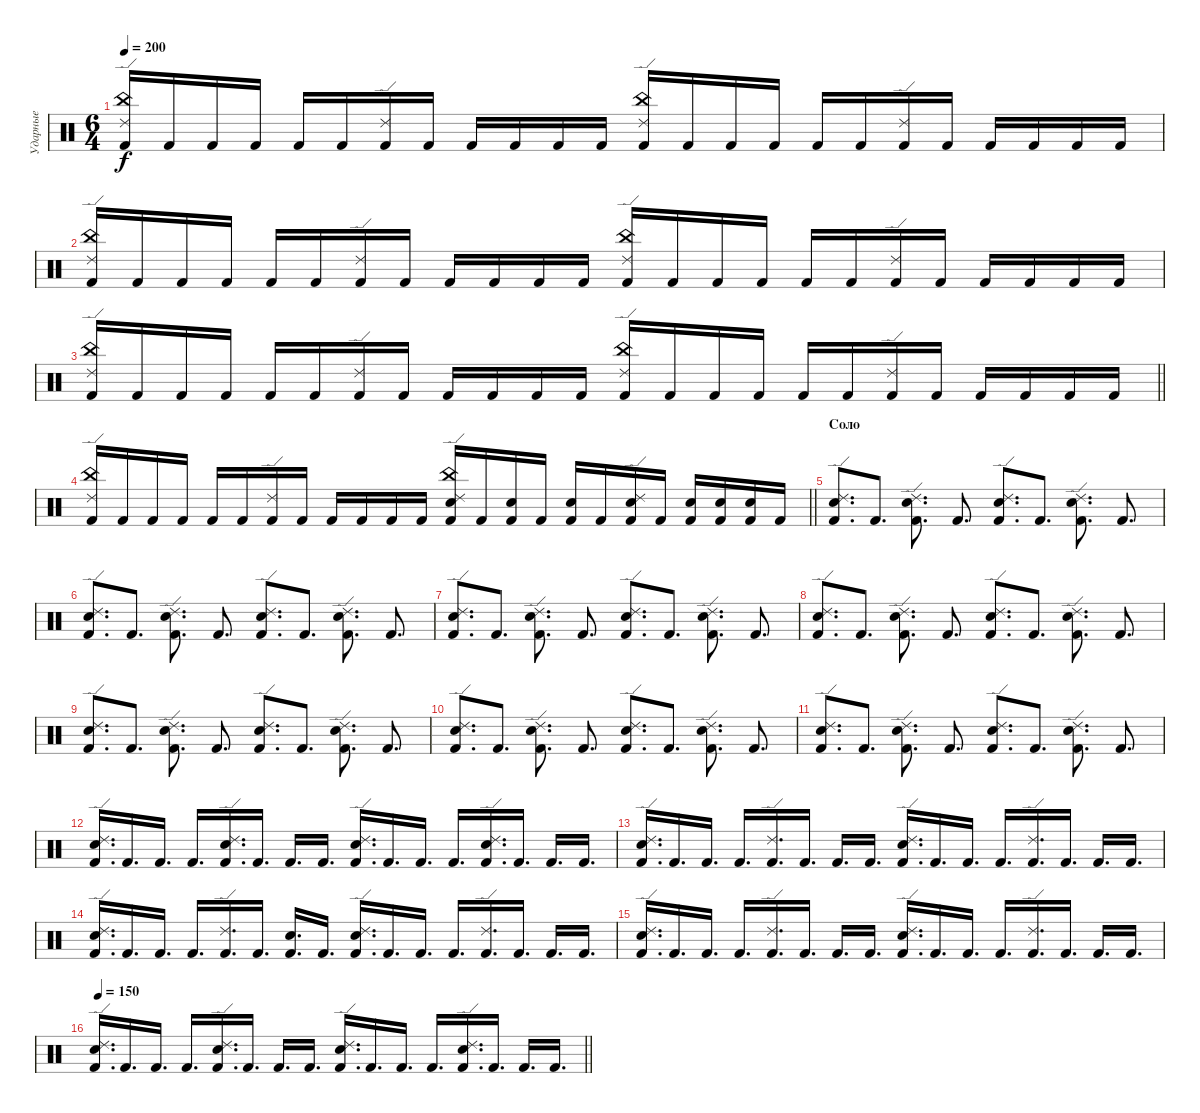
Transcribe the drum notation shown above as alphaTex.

\track ("Ударные" "Ударные") {instrument percussion}
\staff {score}
\articulation defaults
\ts (6 4)
\tempo 200
\clef neutral
\ks c
("Ride (edge) 2" "China (hit)" "Kick (hit) 2").16{dy f} "Kick (hit) 2".16 "Kick (hit) 2".16 "Kick (hit) 2".16 "Kick (hit) 2".16 "Kick (hit) 2".16 ("Ride (edge) 2" "Kick (hit) 2").16 "Kick (hit) 2".16 "Kick (hit) 2".16 "Kick (hit) 2".16 "Kick (hit) 2".16 "Kick (hit) 2".16 ("Ride (edge) 2" "China (hit)" "Kick (hit) 2").16 "Kick (hit) 2".16 "Kick (hit) 2".16 "Kick (hit) 2".16 "Kick (hit) 2".16 "Kick (hit) 2".16 ("Ride (edge) 2" "Kick (hit) 2").16 "Kick (hit) 2".16 "Kick (hit) 2".16 "Kick (hit) 2".16 "Kick (hit) 2".16 "Kick (hit) 2".16 |
("Ride (edge) 2" "China (hit)" "Kick (hit) 2").16 "Kick (hit) 2".16 "Kick (hit) 2".16 "Kick (hit) 2".16 "Kick (hit) 2".16 "Kick (hit) 2".16 ("Ride (edge) 2" "Kick (hit) 2").16 "Kick (hit) 2".16 "Kick (hit) 2".16 "Kick (hit) 2".16 "Kick (hit) 2".16 "Kick (hit) 2".16 ("Ride (edge) 2" "China (hit)" "Kick (hit) 2").16 "Kick (hit) 2".16 "Kick (hit) 2".16 "Kick (hit) 2".16 "Kick (hit) 2".16 "Kick (hit) 2".16 ("Ride (edge) 2" "Kick (hit) 2").16 "Kick (hit) 2".16 "Kick (hit) 2".16 "Kick (hit) 2".16 "Kick (hit) 2".16 "Kick (hit) 2".16 |
\barLineRight lightlight
("Ride (edge) 2" "China (hit)" "Kick (hit) 2").16 "Kick (hit) 2".16 "Kick (hit) 2".16 "Kick (hit) 2".16 "Kick (hit) 2".16 "Kick (hit) 2".16 ("Ride (edge) 2" "Kick (hit) 2").16 "Kick (hit) 2".16 "Kick (hit) 2".16 "Kick (hit) 2".16 "Kick (hit) 2".16 "Kick (hit) 2".16 ("Ride (edge) 2" "China (hit)" "Kick (hit) 2").16 "Kick (hit) 2".16 "Kick (hit) 2".16 "Kick (hit) 2".16 "Kick (hit) 2".16 "Kick (hit) 2".16 ("Ride (edge) 2" "Kick (hit) 2").16 "Kick (hit) 2".16 "Kick (hit) 2".16 "Kick (hit) 2".16 "Kick (hit) 2".16 "Kick (hit) 2".16 |
\barLineRight lightlight
("Ride (edge) 2" "China (hit)" "Kick (hit) 2").16 "Kick (hit) 2".16 "Kick (hit) 2".16 "Kick (hit) 2".16 "Kick (hit) 2".16 "Kick (hit) 2".16 ("Ride (edge) 2" "Kick (hit) 2").16 "Kick (hit) 2".16 "Kick (hit) 2".16 "Kick (hit) 2".16 "Kick (hit) 2".16 "Kick (hit) 2".16 ("Ride (edge) 2" "China (hit)" "Electric Snare (hit)" "Kick (hit) 2").16 "Kick (hit) 2".16 ("Electric Snare (hit)" "Kick (hit) 2").16 "Kick (hit) 2".16 ("Electric Snare (hit)" "Kick (hit) 2").16 "Kick (hit) 2".16 ("Ride (edge) 2" "Electric Snare (hit)" "Kick (hit) 2").16 "Kick (hit) 2".16 ("Electric Snare (hit)" "Kick (hit) 2").16 ("Electric Snare (hit)" "Kick (hit) 2").16 ("Electric Snare (hit)" "Kick (hit) 2").16 "Kick (hit) 2".16 |
\section ("" "Соло")
("Ride (edge) 2" "Electric Snare (hit)" "Kick (hit) 2").8{d} "Kick (hit) 2".8{d} ("Ride (edge) 2" "Electric Snare (hit)" "Kick (hit) 2").8{d} "Kick (hit) 2".8{d} ("Ride (edge) 2" "Electric Snare (hit)" "Kick (hit) 2").8{d} "Kick (hit) 2".8{d} ("Ride (edge) 2" "Electric Snare (hit)" "Kick (hit) 2").8{d} "Kick (hit) 2".8{d} |
("Ride (edge) 2" "Electric Snare (hit)" "Kick (hit) 2").8{d} "Kick (hit) 2".8{d} ("Ride (edge) 2" "Electric Snare (hit)" "Kick (hit) 2").8{d} "Kick (hit) 2".8{d} ("Ride (edge) 2" "Electric Snare (hit)" "Kick (hit) 2").8{d} "Kick (hit) 2".8{d} ("Ride (edge) 2" "Electric Snare (hit)" "Kick (hit) 2").8{d} "Kick (hit) 2".8{d} |
("Ride (edge) 2" "Electric Snare (hit)" "Kick (hit) 2").8{d} "Kick (hit) 2".8{d} ("Ride (edge) 2" "Electric Snare (hit)" "Kick (hit) 2").8{d} "Kick (hit) 2".8{d} ("Ride (edge) 2" "Electric Snare (hit)" "Kick (hit) 2").8{d} "Kick (hit) 2".8{d} ("Ride (edge) 2" "Electric Snare (hit)" "Kick (hit) 2").8{d} "Kick (hit) 2".8{d} |
("Ride (edge) 2" "Electric Snare (hit)" "Kick (hit) 2").8{d} "Kick (hit) 2".8{d} ("Ride (edge) 2" "Electric Snare (hit)" "Kick (hit) 2").8{d} "Kick (hit) 2".8{d} ("Ride (edge) 2" "Electric Snare (hit)" "Kick (hit) 2").8{d} "Kick (hit) 2".8{d} ("Ride (edge) 2" "Electric Snare (hit)" "Kick (hit) 2").8{d} "Kick (hit) 2".8{d} |
("Ride (edge) 2" "Electric Snare (hit)" "Kick (hit) 2").8{d} "Kick (hit) 2".8{d} ("Ride (edge) 2" "Electric Snare (hit)" "Kick (hit) 2").8{d} "Kick (hit) 2".8{d} ("Ride (edge) 2" "Electric Snare (hit)" "Kick (hit) 2").8{d} "Kick (hit) 2".8{d} ("Ride (edge) 2" "Electric Snare (hit)" "Kick (hit) 2").8{d} "Kick (hit) 2".8{d} |
("Ride (edge) 2" "Electric Snare (hit)" "Kick (hit) 2").8{d} "Kick (hit) 2".8{d} ("Ride (edge) 2" "Electric Snare (hit)" "Kick (hit) 2").8{d} "Kick (hit) 2".8{d} ("Ride (edge) 2" "Electric Snare (hit)" "Kick (hit) 2").8{d} "Kick (hit) 2".8{d} ("Ride (edge) 2" "Electric Snare (hit)" "Kick (hit) 2").8{d} "Kick (hit) 2".8{d} |
("Ride (edge) 2" "Electric Snare (hit)" "Kick (hit) 2").8{d} "Kick (hit) 2".8{d} ("Ride (edge) 2" "Electric Snare (hit)" "Kick (hit) 2").8{d} "Kick (hit) 2".8{d} ("Ride (edge) 2" "Electric Snare (hit)" "Kick (hit) 2").8{d} "Kick (hit) 2".8{d} ("Ride (edge) 2" "Electric Snare (hit)" "Kick (hit) 2").8{d} "Kick (hit) 2".8{d} |
("Ride (edge) 2" "Electric Snare (hit)" "Kick (hit) 2").16{d} "Kick (hit) 2".16{d} "Kick (hit) 2".16{d} "Kick (hit) 2".16{d} ("Ride (edge) 2" "Electric Snare (hit)" "Kick (hit) 2").16{d} "Kick (hit) 2".16{d} "Kick (hit) 2".16{d} "Kick (hit) 2".16{d} ("Ride (edge) 2" "Electric Snare (hit)" "Kick (hit) 2").16{d} "Kick (hit) 2".16{d} "Kick (hit) 2".16{d} "Kick (hit) 2".16{d} ("Ride (edge) 2" "Electric Snare (hit)" "Kick (hit) 2").16{d} "Kick (hit) 2".16{d} "Kick (hit) 2".16{d} "Kick (hit) 2".16{d} |
("Ride (edge) 2" "Electric Snare (hit)" "Kick (hit) 2").16{d} "Kick (hit) 2".16{d} "Kick (hit) 2".16{d} "Kick (hit) 2".16{d} ("Ride (edge) 2" "Kick (hit) 2").16{d} "Kick (hit) 2".16{d} "Kick (hit) 2".16{d} "Kick (hit) 2".16{d} ("Ride (edge) 2" "Electric Snare (hit)" "Kick (hit) 2").16{d} "Kick (hit) 2".16{d} "Kick (hit) 2".16{d} "Kick (hit) 2".16{d} ("Ride (edge) 2" "Kick (hit) 2").16{d} "Kick (hit) 2".16{d} "Kick (hit) 2".16{d} "Kick (hit) 2".16{d} |
("Ride (edge) 2" "Electric Snare (hit)" "Kick (hit) 2").16{d} "Kick (hit) 2".16{d} "Kick (hit) 2".16{d} "Kick (hit) 2".16{d} ("Ride (edge) 2" "Kick (hit) 2").16{d} "Kick (hit) 2".16{d} ("Electric Snare (hit)" "Kick (hit) 2").16{d} "Kick (hit) 2".16{d} ("Ride (edge) 2" "Electric Snare (hit)" "Kick (hit) 2").16{d} "Kick (hit) 2".16{d} "Kick (hit) 2".16{d} "Kick (hit) 2".16{d} ("Ride (edge) 2" "Kick (hit) 2").16{d} "Kick (hit) 2".16{d} "Kick (hit) 2".16{d} "Kick (hit) 2".16{d} |
("Ride (edge) 2" "Electric Snare (hit)" "Kick (hit) 2").16{d} "Kick (hit) 2".16{d} "Kick (hit) 2".16{d} "Kick (hit) 2".16{d} ("Ride (edge) 2" "Kick (hit) 2").16{d} "Kick (hit) 2".16{d} "Kick (hit) 2".16{d} "Kick (hit) 2".16{d} ("Ride (edge) 2" "Electric Snare (hit)" "Kick (hit) 2").16{d} "Kick (hit) 2".16{d} "Kick (hit) 2".16{d} "Kick (hit) 2".16{d} ("Ride (edge) 2" "Kick (hit) 2").16{d} "Kick (hit) 2".16{d} "Kick (hit) 2".16{d} "Kick (hit) 2".16{d} |
\tempo 150
\barLineRight lightlight
("Ride (edge) 2" "Electric Snare (hit)" "Kick (hit) 2").16{d} "Kick (hit) 2".16{d} "Kick (hit) 2".16{d} "Kick (hit) 2".16{d} ("Ride (edge) 2" "Electric Snare (hit)" "Kick (hit) 2").16{d} "Kick (hit) 2".16{d} "Kick (hit) 2".16{d} "Kick (hit) 2".16{d} ("Ride (edge) 2" "Electric Snare (hit)" "Kick (hit) 2").16{d} "Kick (hit) 2".16{d} "Kick (hit) 2".16{d} "Kick (hit) 2".16{d} ("Ride (edge) 2" "Electric Snare (hit)" "Kick (hit) 2").16{d} "Kick (hit) 2".16{d} "Kick (hit) 2".16{d} "Kick (hit) 2".16{d}
